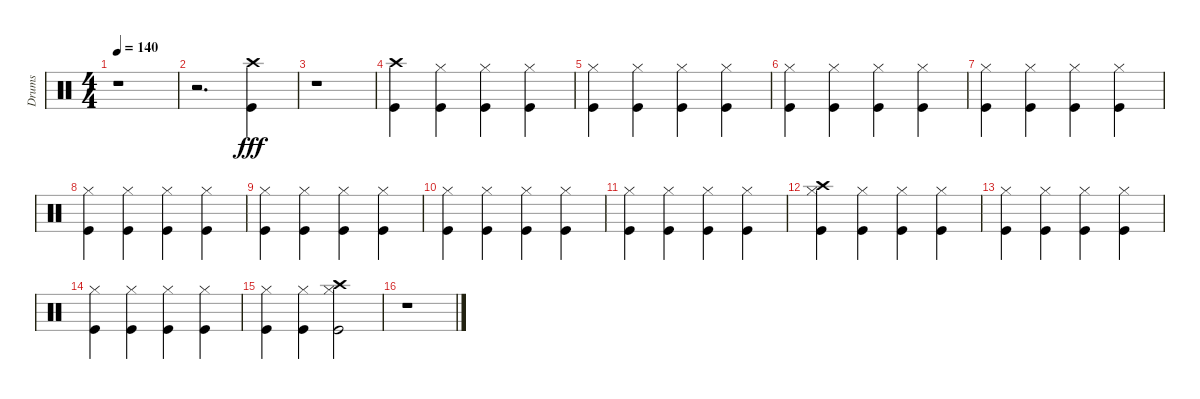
\track ("Drums" "Drums") {instrument percussion}
\staff {score}
\articulation defaults
\ts (4 4)
\tempo 140
\clef neutral
\ks c
r.1{dy fff} |
r.2{d} ("Crash high (hit)" "Kick (hit)").4 |
r.1 |
("Crash high (hit)" "Kick (hit)").4 ("Hi-Hat (closed)" "Kick (hit)").4 ("Hi-Hat (closed)" "Kick (hit)").4 ("Hi-Hat (closed)" "Kick (hit)").4 |
("Hi-Hat (closed)" "Kick (hit)").4 ("Hi-Hat (closed)" "Kick (hit)").4 ("Hi-Hat (closed)" "Kick (hit)").4 ("Hi-Hat (closed)" "Kick (hit)").4 |
("Hi-Hat (closed)" "Kick (hit)").4 ("Hi-Hat (closed)" "Kick (hit)").4 ("Hi-Hat (closed)" "Kick (hit)").4 ("Hi-Hat (closed)" "Kick (hit)").4 |
("Hi-Hat (closed)" "Kick (hit)").4 ("Hi-Hat (closed)" "Kick (hit)").4 ("Hi-Hat (closed)" "Kick (hit)").4 ("Hi-Hat (closed)" "Kick (hit)").4 |
("Hi-Hat (closed)" "Kick (hit)").4 ("Hi-Hat (closed)" "Kick (hit)").4 ("Hi-Hat (closed)" "Kick (hit)").4 ("Hi-Hat (closed)" "Kick (hit)").4 |
("Hi-Hat (closed)" "Kick (hit)").4 ("Hi-Hat (closed)" "Kick (hit)").4 ("Hi-Hat (closed)" "Kick (hit)").4 ("Hi-Hat (closed)" "Kick (hit)").4 |
("Hi-Hat (closed)" "Kick (hit)").4 ("Hi-Hat (closed)" "Kick (hit)").4 ("Hi-Hat (closed)" "Kick (hit)").4 ("Hi-Hat (closed)" "Kick (hit)").4 |
("Hi-Hat (closed)" "Kick (hit)").4 ("Hi-Hat (closed)" "Kick (hit)").4 ("Hi-Hat (closed)" "Kick (hit)").4 ("Hi-Hat (closed)" "Kick (hit)").4 |
("Hi-Hat (closed)" "Crash high (hit)" "Kick (hit)").4 ("Hi-Hat (closed)" "Kick (hit)").4 ("Hi-Hat (closed)" "Kick (hit)").4 ("Hi-Hat (closed)" "Kick (hit)").4 |
("Hi-Hat (closed)" "Kick (hit)").4 ("Hi-Hat (closed)" "Kick (hit)").4 ("Hi-Hat (closed)" "Kick (hit)").4 ("Hi-Hat (closed)" "Kick (hit)").4 |
("Hi-Hat (closed)" "Kick (hit)").4 ("Hi-Hat (closed)" "Kick (hit)").4 ("Hi-Hat (closed)" "Kick (hit)").4 ("Hi-Hat (closed)" "Kick (hit)").4 |
("Hi-Hat (closed)" "Kick (hit)").4 ("Hi-Hat (closed)" "Kick (hit)").4 ("Hi-Hat (closed)" "Crash high (hit)" "Kick (hit)").2 |
r.1
